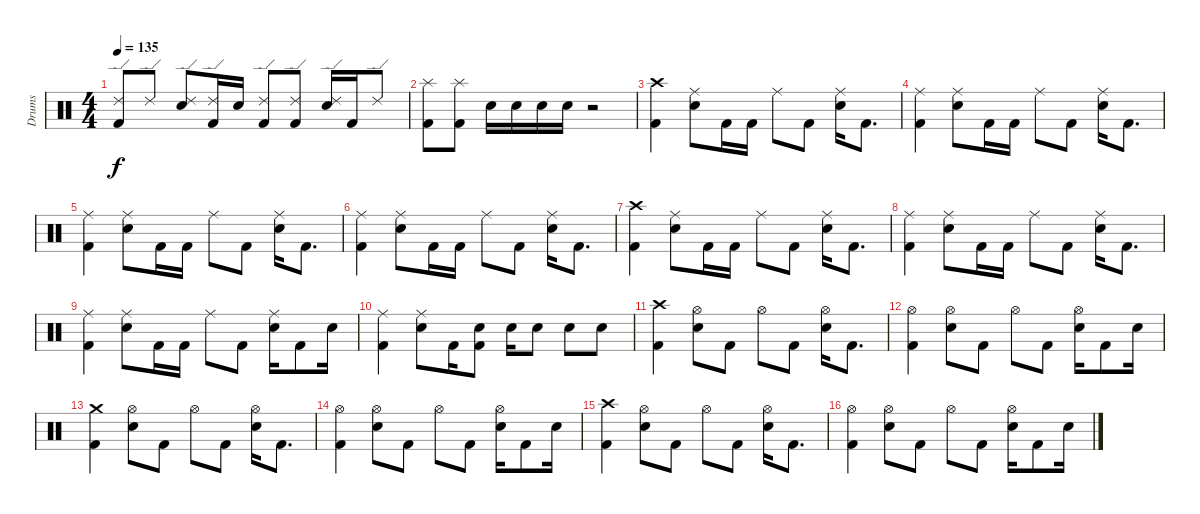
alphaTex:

\track ("Drums" "Drums") {instrument percussion}
\staff {score}
\articulation defaults
\ts (4 4)
\tempo 135
\clef neutral
\ks c
("Ride (edge) 2" "Kick (hit) 2").8{dy f} "Ride (edge) 2".8 ("Ride (edge) 2" "Electric Snare (hit)").8 ("Ride (edge) 2" "Kick (hit) 2").16 "Electric Snare (hit)".16 ("Ride (edge) 2" "Kick (hit) 2").8 ("Ride (edge) 2" "Kick (hit) 2").8 ("Ride (edge) 2" "Electric Snare (hit)").16 "Kick (hit) 2".16 "Ride (edge) 2".8 |
("Splash (hit)" "Kick (hit) 2").8 ("Splash (hit)" "Kick (hit) 2").8 "Electric Snare (hit)".16 "Electric Snare (hit)".16 "Electric Snare (hit)".16 "Electric Snare (hit)".16 r.2 |
("Crash high (hit)" "Kick (hit) 2").4 ("Ride (middle)" "Electric Snare (hit)").8 "Kick (hit) 2".16 "Kick (hit) 2".16 "Ride (middle)".8 "Kick (hit) 2".8 ("Ride (middle)" "Electric Snare (hit)").16 "Kick (hit) 2".8{d} |
("Ride (middle)" "Kick (hit) 2").4 ("Ride (middle)" "Electric Snare (hit)").8 "Kick (hit) 2".16 "Kick (hit) 2".16 "Ride (middle)".8 "Kick (hit) 2".8 ("Ride (middle)" "Electric Snare (hit)").16 "Kick (hit) 2".8{d} |
("Ride (middle)" "Kick (hit) 2").4 ("Ride (middle)" "Electric Snare (hit)").8 "Kick (hit) 2".16 "Kick (hit) 2".16 "Ride (middle)".8 "Kick (hit) 2".8 ("Ride (middle)" "Electric Snare (hit)").16 "Kick (hit) 2".8{d} |
("Ride (middle)" "Kick (hit) 2").4 ("Ride (middle)" "Electric Snare (hit)").8 "Kick (hit) 2".16 "Kick (hit) 2".16 "Ride (middle)".8 "Kick (hit) 2".8 ("Ride (middle)" "Electric Snare (hit)").16 "Kick (hit) 2".8{d} |
("Crash high (hit)" "Kick (hit) 2").4 ("Ride (middle)" "Electric Snare (hit)").8 "Kick (hit) 2".16 "Kick (hit) 2".16 "Ride (middle)".8 "Kick (hit) 2".8 ("Ride (middle)" "Electric Snare (hit)").16 "Kick (hit) 2".8{d} |
("Ride (middle)" "Kick (hit) 2").4 ("Ride (middle)" "Electric Snare (hit)").8 "Kick (hit) 2".16 "Kick (hit) 2".16 "Ride (middle)".8 "Kick (hit) 2".8 ("Ride (middle)" "Electric Snare (hit)").16 "Kick (hit) 2".8{d} |
("Ride (middle)" "Kick (hit) 2").4 ("Ride (middle)" "Electric Snare (hit)").8 "Kick (hit) 2".16 "Kick (hit) 2".16 "Ride (middle)".8 "Kick (hit) 2".8 ("Ride (middle)" "Electric Snare (hit)").16 "Kick (hit) 2".8 "Electric Snare (hit)".16 |
("Ride (middle)" "Kick (hit) 2").4 ("Ride (middle)" "Electric Snare (hit)").8 "Kick (hit) 2".16 ("Electric Snare (hit)" "Kick (hit) 2").8 "Electric Snare (hit)".16 "Electric Snare (hit)".8 "Electric Snare (hit)".8 "Electric Snare (hit)".8 |
("Crash high (hit)" "Kick (hit) 2").4 ("Hi-Hat (open)" "Electric Snare (hit)").8 "Kick (hit) 2".8 "Hi-Hat (open)".8 "Kick (hit) 2".8 ("Hi-Hat (open)" "Electric Snare (hit)").16 "Kick (hit) 2".8{d} |
("Hi-Hat (open)" "Kick (hit) 2").4 ("Hi-Hat (open)" "Electric Snare (hit)").8 "Kick (hit) 2".8 "Hi-Hat (open)".8 "Kick (hit) 2".8 ("Hi-Hat (open)" "Electric Snare (hit)").16 "Kick (hit) 2".8 "Electric Snare (hit)".16 |
("Crash medium (hit)" "Kick (hit) 2").4 ("Hi-Hat (open)" "Electric Snare (hit)").8 "Kick (hit) 2".8 "Hi-Hat (open)".8 "Kick (hit) 2".8 ("Hi-Hat (open)" "Electric Snare (hit)").16 "Kick (hit) 2".8{d} |
("Hi-Hat (open)" "Kick (hit) 2").4 ("Hi-Hat (open)" "Electric Snare (hit)").8 "Kick (hit) 2".8 "Hi-Hat (open)".8 "Kick (hit) 2".8 ("Hi-Hat (open)" "Electric Snare (hit)").16 "Kick (hit) 2".8 "Electric Snare (hit)".16 |
("Crash high (hit)" "Kick (hit) 2").4 ("Hi-Hat (open)" "Electric Snare (hit)").8 "Kick (hit) 2".8 "Hi-Hat (open)".8 "Kick (hit) 2".8 ("Hi-Hat (open)" "Electric Snare (hit)").16 "Kick (hit) 2".8{d} |
("Hi-Hat (open)" "Kick (hit) 2").4 ("Hi-Hat (open)" "Electric Snare (hit)").8 "Kick (hit) 2".8 "Hi-Hat (open)".8 "Kick (hit) 2".8 ("Hi-Hat (open)" "Electric Snare (hit)").16 "Kick (hit) 2".8 "Electric Snare (hit)".16
